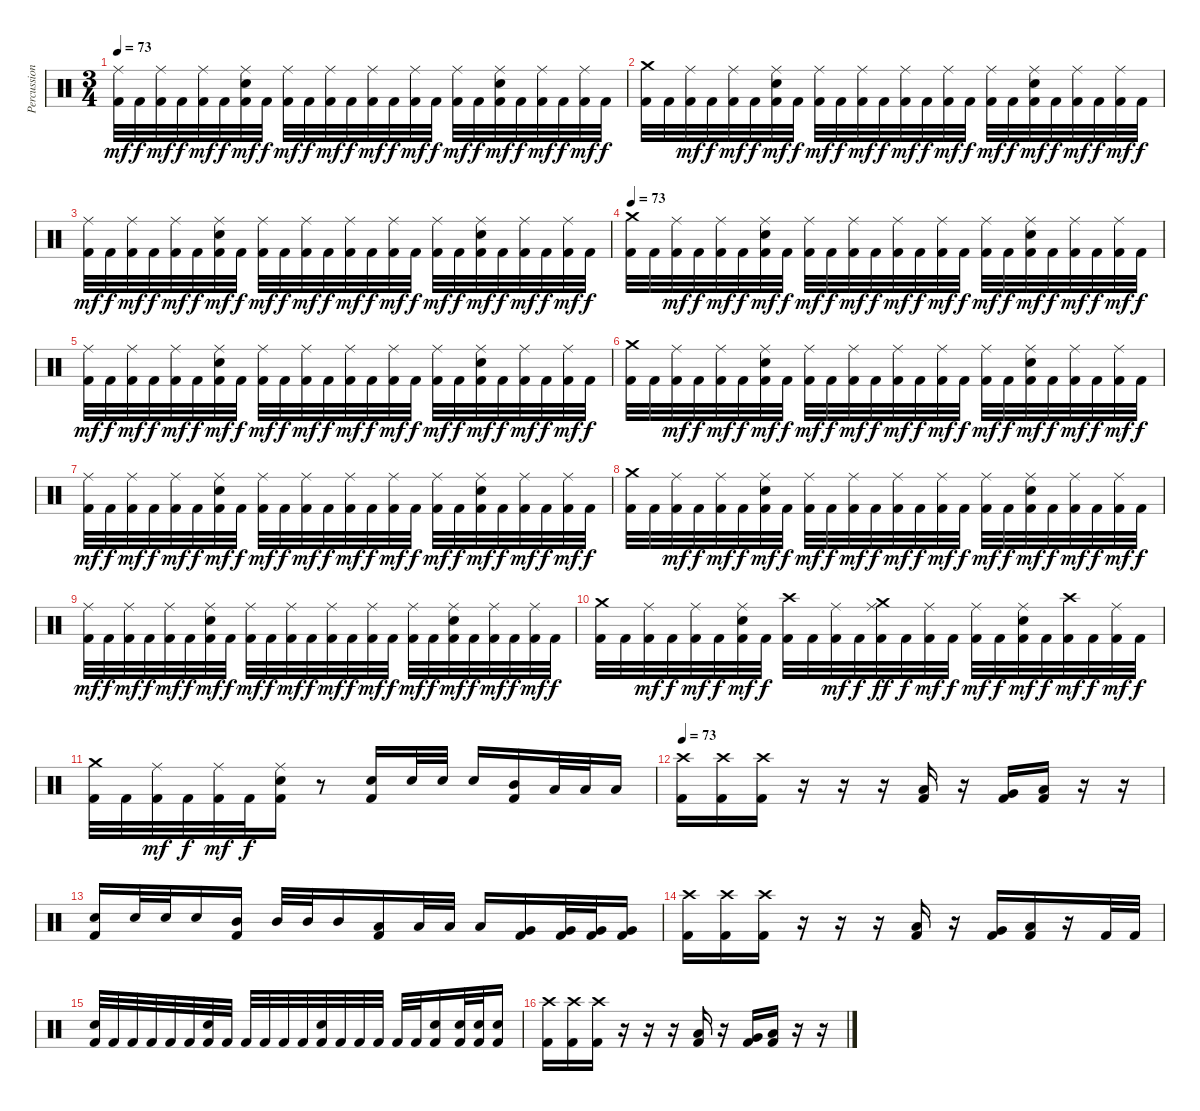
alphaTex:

\track ("Percussion" "Percussion") {instrument percussion}
\staff {score}
\articulation defaults
\ts (3 4)
\tempo 73
\clef neutral
\ks c
("Ride (middle)" "Kick (hit) 2").32{dy mf} "Kick (hit) 2".32{dy f} ("Ride (middle)" "Kick (hit) 2").32{dy mf} "Kick (hit) 2".32{dy f} ("Ride (middle)" "Kick (hit) 2").32{dy mf} "Kick (hit) 2".32{dy f} ("Ride (middle)" "Electric Snare (hit)" "Kick (hit) 2").32{dy mf} "Kick (hit) 2".32{dy f} ("Ride (middle)" "Kick (hit) 2").32{dy mf} "Kick (hit) 2".32{dy f} ("Ride (middle)" "Kick (hit) 2").32{dy mf} "Kick (hit) 2".32{dy f} ("Ride (middle)" "Kick (hit) 2").32{dy mf} "Kick (hit) 2".32{dy f} ("Ride (middle)" "Kick (hit) 2").32{dy mf} "Kick (hit) 2".32{dy f} ("Ride (middle)" "Kick (hit) 2").32{dy mf} "Kick (hit) 2".32{dy f} ("Ride (middle)" "Electric Snare (hit)" "Kick (hit) 2").32{dy mf} "Kick (hit) 2".32{dy f} ("Ride (middle)" "Kick (hit) 2").32{dy mf} "Kick (hit) 2".32{dy f} ("Ride (middle)" "Kick (hit) 2").32{dy mf} "Kick (hit) 2".32{dy f} |
("Crash medium (hit)" "Kick (hit) 2").32 "Kick (hit) 2".32 ("Ride (middle)" "Kick (hit) 2").32{dy mf} "Kick (hit) 2".32{dy f} ("Ride (middle)" "Kick (hit) 2").32{dy mf} "Kick (hit) 2".32{dy f} ("Ride (middle)" "Electric Snare (hit)" "Kick (hit) 2").32{dy mf} "Kick (hit) 2".32{dy f} ("Ride (middle)" "Kick (hit) 2").32{dy mf} "Kick (hit) 2".32{dy f} ("Ride (middle)" "Kick (hit) 2").32{dy mf} "Kick (hit) 2".32{dy f} ("Ride (middle)" "Kick (hit) 2").32{dy mf} "Kick (hit) 2".32{dy f} ("Ride (middle)" "Kick (hit) 2").32{dy mf} "Kick (hit) 2".32{dy f} ("Ride (middle)" "Kick (hit) 2").32{dy mf} "Kick (hit) 2".32{dy f} ("Ride (middle)" "Electric Snare (hit)" "Kick (hit) 2").32{dy mf} "Kick (hit) 2".32{dy f} ("Ride (middle)" "Kick (hit) 2").32{dy mf} "Kick (hit) 2".32{dy f} ("Ride (middle)" "Kick (hit) 2").32{dy mf} "Kick (hit) 2".32{dy f} |
("Ride (middle)" "Kick (hit) 2").32{dy mf} "Kick (hit) 2".32{dy f} ("Ride (middle)" "Kick (hit) 2").32{dy mf} "Kick (hit) 2".32{dy f} ("Ride (middle)" "Kick (hit) 2").32{dy mf} "Kick (hit) 2".32{dy f} ("Ride (middle)" "Electric Snare (hit)" "Kick (hit) 2").32{dy mf} "Kick (hit) 2".32{dy f} ("Ride (middle)" "Kick (hit) 2").32{dy mf} "Kick (hit) 2".32{dy f} ("Ride (middle)" "Kick (hit) 2").32{dy mf} "Kick (hit) 2".32{dy f} ("Ride (middle)" "Kick (hit) 2").32{dy mf} "Kick (hit) 2".32{dy f} ("Ride (middle)" "Kick (hit) 2").32{dy mf} "Kick (hit) 2".32{dy f} ("Ride (middle)" "Kick (hit) 2").32{dy mf} "Kick (hit) 2".32{dy f} ("Ride (middle)" "Electric Snare (hit)" "Kick (hit) 2").32{dy mf} "Kick (hit) 2".32{dy f} ("Ride (middle)" "Kick (hit) 2").32{dy mf} "Kick (hit) 2".32{dy f} ("Ride (middle)" "Kick (hit) 2").32{dy mf} "Kick (hit) 2".32{dy f} |
\tempo 73
("Crash medium (hit)" "Kick (hit) 2").32 "Kick (hit) 2".32 ("Ride (middle)" "Kick (hit) 2").32{dy mf} "Kick (hit) 2".32{dy f} ("Ride (middle)" "Kick (hit) 2").32{dy mf} "Kick (hit) 2".32{dy f} ("Ride (middle)" "Electric Snare (hit)" "Kick (hit) 2").32{dy mf} "Kick (hit) 2".32{dy f} ("Ride (middle)" "Kick (hit) 2").32{dy mf} "Kick (hit) 2".32{dy f} ("Ride (middle)" "Kick (hit) 2").32{dy mf} "Kick (hit) 2".32{dy f} ("Ride (middle)" "Kick (hit) 2").32{dy mf} "Kick (hit) 2".32{dy f} ("Ride (middle)" "Kick (hit) 2").32{dy mf} "Kick (hit) 2".32{dy f} ("Ride (middle)" "Kick (hit) 2").32{dy mf} "Kick (hit) 2".32{dy f} ("Ride (middle)" "Electric Snare (hit)" "Kick (hit) 2").32{dy mf} "Kick (hit) 2".32{dy f} ("Ride (middle)" "Kick (hit) 2").32{dy mf} "Kick (hit) 2".32{dy f} ("Ride (middle)" "Kick (hit) 2").32{dy mf} "Kick (hit) 2".32{dy f} |
("Ride (middle)" "Kick (hit) 2").32{dy mf} "Kick (hit) 2".32{dy f} ("Ride (middle)" "Kick (hit) 2").32{dy mf} "Kick (hit) 2".32{dy f} ("Ride (middle)" "Kick (hit) 2").32{dy mf} "Kick (hit) 2".32{dy f} ("Ride (middle)" "Electric Snare (hit)" "Kick (hit) 2").32{dy mf} "Kick (hit) 2".32{dy f} ("Ride (middle)" "Kick (hit) 2").32{dy mf} "Kick (hit) 2".32{dy f} ("Ride (middle)" "Kick (hit) 2").32{dy mf} "Kick (hit) 2".32{dy f} ("Ride (middle)" "Kick (hit) 2").32{dy mf} "Kick (hit) 2".32{dy f} ("Ride (middle)" "Kick (hit) 2").32{dy mf} "Kick (hit) 2".32{dy f} ("Ride (middle)" "Kick (hit) 2").32{dy mf} "Kick (hit) 2".32{dy f} ("Ride (middle)" "Electric Snare (hit)" "Kick (hit) 2").32{dy mf} "Kick (hit) 2".32{dy f} ("Ride (middle)" "Kick (hit) 2").32{dy mf} "Kick (hit) 2".32{dy f} ("Ride (middle)" "Kick (hit) 2").32{dy mf} "Kick (hit) 2".32{dy f} |
("Crash medium (hit)" "Kick (hit) 2").32 "Kick (hit) 2".32 ("Ride (middle)" "Kick (hit) 2").32{dy mf} "Kick (hit) 2".32{dy f} ("Ride (middle)" "Kick (hit) 2").32{dy mf} "Kick (hit) 2".32{dy f} ("Ride (middle)" "Electric Snare (hit)" "Kick (hit) 2").32{dy mf} "Kick (hit) 2".32{dy f} ("Ride (middle)" "Kick (hit) 2").32{dy mf} "Kick (hit) 2".32{dy f} ("Ride (middle)" "Kick (hit) 2").32{dy mf} "Kick (hit) 2".32{dy f} ("Ride (middle)" "Kick (hit) 2").32{dy mf} "Kick (hit) 2".32{dy f} ("Ride (middle)" "Kick (hit) 2").32{dy mf} "Kick (hit) 2".32{dy f} ("Ride (middle)" "Kick (hit) 2").32{dy mf} "Kick (hit) 2".32{dy f} ("Ride (middle)" "Electric Snare (hit)" "Kick (hit) 2").32{dy mf} "Kick (hit) 2".32{dy f} ("Ride (middle)" "Kick (hit) 2").32{dy mf} "Kick (hit) 2".32{dy f} ("Ride (middle)" "Kick (hit) 2").32{dy mf} "Kick (hit) 2".32{dy f} |
("Ride (middle)" "Kick (hit) 2").32{dy mf} "Kick (hit) 2".32{dy f} ("Ride (middle)" "Kick (hit) 2").32{dy mf} "Kick (hit) 2".32{dy f} ("Ride (middle)" "Kick (hit) 2").32{dy mf} "Kick (hit) 2".32{dy f} ("Ride (middle)" "Electric Snare (hit)" "Kick (hit) 2").32{dy mf} "Kick (hit) 2".32{dy f} ("Ride (middle)" "Kick (hit) 2").32{dy mf} "Kick (hit) 2".32{dy f} ("Ride (middle)" "Kick (hit) 2").32{dy mf} "Kick (hit) 2".32{dy f} ("Ride (middle)" "Kick (hit) 2").32{dy mf} "Kick (hit) 2".32{dy f} ("Ride (middle)" "Kick (hit) 2").32{dy mf} "Kick (hit) 2".32{dy f} ("Ride (middle)" "Kick (hit) 2").32{dy mf} "Kick (hit) 2".32{dy f} ("Ride (middle)" "Electric Snare (hit)" "Kick (hit) 2").32{dy mf} "Kick (hit) 2".32{dy f} ("Ride (middle)" "Kick (hit) 2").32{dy mf} "Kick (hit) 2".32{dy f} ("Ride (middle)" "Kick (hit) 2").32{dy mf} "Kick (hit) 2".32{dy f} |
("Crash medium (hit)" "Kick (hit) 2").32 "Kick (hit) 2".32 ("Ride (middle)" "Kick (hit) 2").32{dy mf} "Kick (hit) 2".32{dy f} ("Ride (middle)" "Kick (hit) 2").32{dy mf} "Kick (hit) 2".32{dy f} ("Ride (middle)" "Electric Snare (hit)" "Kick (hit) 2").32{dy mf} "Kick (hit) 2".32{dy f} ("Ride (middle)" "Kick (hit) 2").32{dy mf} "Kick (hit) 2".32{dy f} ("Ride (middle)" "Kick (hit) 2").32{dy mf} "Kick (hit) 2".32{dy f} ("Ride (middle)" "Kick (hit) 2").32{dy mf} "Kick (hit) 2".32{dy f} ("Ride (middle)" "Kick (hit) 2").32{dy mf} "Kick (hit) 2".32{dy f} ("Ride (middle)" "Kick (hit) 2").32{dy mf} "Kick (hit) 2".32{dy f} ("Ride (middle)" "Electric Snare (hit)" "Kick (hit) 2").32{dy mf} "Kick (hit) 2".32{dy f} ("Ride (middle)" "Kick (hit) 2").32{dy mf} "Kick (hit) 2".32{dy f} ("Ride (middle)" "Kick (hit) 2").32{dy mf} "Kick (hit) 2".32{dy f} |
("Ride (middle)" "Kick (hit) 2").32{dy mf} "Kick (hit) 2".32{dy f} ("Ride (middle)" "Kick (hit) 2").32{dy mf} "Kick (hit) 2".32{dy f} ("Ride (middle)" "Kick (hit) 2").32{dy mf} "Kick (hit) 2".32{dy f} ("Ride (middle)" "Electric Snare (hit)" "Kick (hit) 2").32{dy mf} "Kick (hit) 2".32{dy f} ("Ride (middle)" "Kick (hit) 2").32{dy mf} "Kick (hit) 2".32{dy f} ("Ride (middle)" "Kick (hit) 2").32{dy mf} "Kick (hit) 2".32{dy f} ("Ride (middle)" "Kick (hit) 2").32{dy mf} "Kick (hit) 2".32{dy f} ("Ride (middle)" "Kick (hit) 2").32{dy mf} "Kick (hit) 2".32{dy f} ("Ride (middle)" "Kick (hit) 2").32{dy mf} "Kick (hit) 2".32{dy f} ("Ride (middle)" "Electric Snare (hit)" "Kick (hit) 2").32{dy mf} "Kick (hit) 2".32{dy f} ("Ride (middle)" "Kick (hit) 2").32{dy mf} "Kick (hit) 2".32{dy f} ("Ride (middle)" "Kick (hit) 2").32{dy mf} "Kick (hit) 2".32{dy f} |
("Crash medium (hit)" "Kick (hit) 2").32 "Kick (hit) 2".32 ("Ride (middle)" "Kick (hit) 2").32{dy mf} "Kick (hit) 2".32{dy f} ("Ride (middle)" "Kick (hit) 2").32{dy mf} "Kick (hit) 2".32{dy f} ("Ride (middle)" "Electric Snare (hit)" "Kick (hit) 2").32{dy mf} "Kick (hit) 2".32{dy f} ("Crash high (hit)" "Kick (hit) 2").32 "Kick (hit) 2".32 ("Ride (middle)" "Kick (hit) 2").32{dy mf} "Kick (hit) 2".32{dy f} ("Crash medium (hit)" "Ride (middle)" "Kick (hit) 2").32{dy ff} "Kick (hit) 2".32{dy f} ("Ride (middle)" "Kick (hit) 2").32{dy mf} "Kick (hit) 2".32{dy f} ("Ride (middle)" "Kick (hit) 2").32{dy mf} "Kick (hit) 2".32{dy f} ("Ride (middle)" "Electric Snare (hit)" "Kick (hit) 2").32{dy mf} "Kick (hit) 2".32{dy f} ("Crash high (hit)" "Kick (hit) 2").32{dy mf} "Kick (hit) 2".32{dy f} ("Ride (middle)" "Kick (hit) 2").32{dy mf} "Kick (hit) 2".32{dy f} |
("Crash medium (hit)" "Kick (hit) 2").32 "Kick (hit) 2".32 ("Ride (middle)" "Kick (hit) 2").32{dy mf} "Kick (hit) 2".32{dy f} ("Ride (middle)" "Kick (hit) 2").32{dy mf} "Kick (hit) 2".32{dy f} ("Ride (middle)" "Electric Snare (hit)" "Kick (hit) 2").16 r.8 ("Electric Snare (hit)" "Kick (hit) 2").16 "Electric Snare (hit)".32 "Electric Snare (hit)".32 "Electric Snare (hit)".16 ("Mid Tom (hit)" "Kick (hit) 2").16 "Low Tom (hit)".32 "Low Tom (hit)".32 "Low Tom (hit)".16 |
\tempo 73
("Crash high (hit)" "Kick (hit) 2").16 ("Crash high (hit)" "Kick (hit) 2").16 ("Crash high (hit)" "Kick (hit) 2").16 r.16 r.16 r.16 ("Low Tom (hit)" "Kick (hit) 2").16 r.16 ("Very Low Tom (hit)" "Kick (hit) 2").16 ("Low Floor Tom (hit)" "Kick (hit) 2").16 r.16 r.16 |
("Electric Snare (hit)" "Kick (hit) 2").16 "Electric Snare (hit)".32 "Electric Snare (hit)".32 "Electric Snare (hit)".16 ("Mid Tom (hit)" "Kick (hit) 2").16 "Mid Tom (hit)".32 "Mid Tom (hit)".32 "Mid Tom (hit)".16 ("Low Tom (hit)" "Kick (hit) 2").16 "Low Tom (hit)".32 "Low Tom (hit)".32 "Low Tom (hit)".16 ("Very Low Tom (hit)" "Kick (hit) 2").16 ("Very Low Tom (hit)" "Kick (hit) 2").32 ("Very Low Tom (hit)" "Kick (hit) 2").32 ("Very Low Tom (hit)" "Kick (hit) 2").16 |
("Crash high (hit)" "Kick (hit) 2").16 ("Crash high (hit)" "Kick (hit) 2").16 ("Crash high (hit)" "Kick (hit) 2").16 r.16 r.16 r.16 ("Low Tom (hit)" "Kick (hit) 2").16 r.16 ("Very Low Tom (hit)" "Kick (hit) 2").16 ("Low Floor Tom (hit)" "Kick (hit) 2").16 r.16 "Kick (hit) 2".32 "Kick (hit) 2".32 |
("Electric Snare (hit)" "Kick (hit) 2").32 "Kick (hit) 2".32 "Kick (hit) 2".32 "Kick (hit) 2".32 "Kick (hit) 2".32 "Kick (hit) 2".32 ("Electric Snare (hit)" "Kick (hit) 2").32 "Kick (hit) 2".32 "Kick (hit) 2".32 "Kick (hit) 2".32 "Kick (hit) 2".32 "Kick (hit) 2".32 ("Electric Snare (hit)" "Kick (hit) 2").32 "Kick (hit) 2".32 "Kick (hit) 2".32 "Kick (hit) 2".32 "Kick (hit) 2".32 "Kick (hit) 2".32 ("Electric Snare (hit)" "Kick (hit) 2").16 ("Electric Snare (hit)" "Kick (hit) 2").32 ("Electric Snare (hit)" "Kick (hit) 2").32 ("Electric Snare (hit)" "Kick (hit) 2").16 |
("Crash high (hit)" "Kick (hit) 2").16 ("Crash high (hit)" "Kick (hit) 2").16 ("Crash high (hit)" "Kick (hit) 2").16 r.16 r.16 r.16 ("Low Tom (hit)" "Kick (hit) 2").16 r.16 ("Very Low Tom (hit)" "Kick (hit) 2").16 ("Low Floor Tom (hit)" "Kick (hit) 2").16 r.16 r.16
